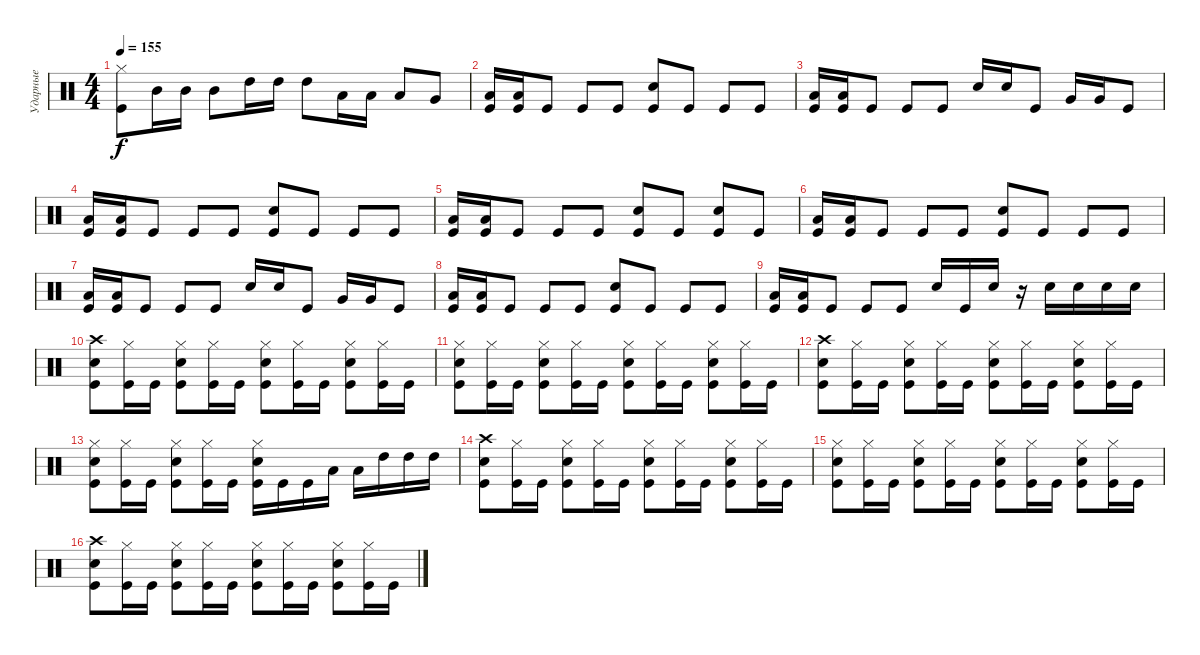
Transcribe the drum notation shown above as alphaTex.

\track ("Ударные" "Ударные") {instrument percussion}
\staff {score}
\articulation defaults
\ts (4 4)
\tempo 155
\clef neutral
\ks c
("Hi-Hat (closed)" "Kick (hit)").8{dy f} "Mid Tom (hit)".16 "Mid Tom (hit)".16 "Mid Tom (hit)".8 "High Tom (hit)".16 "High Tom (hit)".16 "High Tom (hit)".8 "Low Tom (hit)".16 "Low Tom (hit)".16 "Low Tom (hit)".8 "Very Low Tom (hit)".8 |
("Low Tom (hit)" "Kick (hit)").16 ("Low Tom (hit)" "Kick (hit)").16 "Kick (hit)".8 "Kick (hit)".8 "Kick (hit)".8 ("Electric Snare (hit)" "Kick (hit)").8 "Kick (hit)".8 "Kick (hit)".8 "Kick (hit)".8 |
("Low Tom (hit)" "Kick (hit)").16 ("Low Tom (hit)" "Kick (hit)").16 "Kick (hit)".8 "Kick (hit)".8 "Kick (hit)".8 "Electric Snare (hit)".16 "Electric Snare (hit)".16 "Kick (hit)".8 "Very Low Tom (hit)".16 "Very Low Tom (hit)".16 "Kick (hit)".8 |
("Low Tom (hit)" "Kick (hit)").16 ("Low Tom (hit)" "Kick (hit)").16 "Kick (hit)".8 "Kick (hit)".8 "Kick (hit)".8 ("Electric Snare (hit)" "Kick (hit)").8 "Kick (hit)".8 "Kick (hit)".8 "Kick (hit)".8 |
("Low Tom (hit)" "Kick (hit)").16 ("Low Tom (hit)" "Kick (hit)").16 "Kick (hit)".8 "Kick (hit)".8 "Kick (hit)".8 ("Electric Snare (hit)" "Kick (hit)").8 "Kick (hit)".8 ("Electric Snare (hit)" "Kick (hit)").8 "Kick (hit)".8 |
("Low Tom (hit)" "Kick (hit)").16 ("Low Tom (hit)" "Kick (hit)").16 "Kick (hit)".8 "Kick (hit)".8 "Kick (hit)".8 ("Electric Snare (hit)" "Kick (hit)").8 "Kick (hit)".8 "Kick (hit)".8 "Kick (hit)".8 |
("Low Tom (hit)" "Kick (hit)").16 ("Low Tom (hit)" "Kick (hit)").16 "Kick (hit)".8 "Kick (hit)".8 "Kick (hit)".8 "Electric Snare (hit)".16 "Electric Snare (hit)".16 "Kick (hit)".8 "Very Low Tom (hit)".16 "Very Low Tom (hit)".16 "Kick (hit)".8 |
("Low Tom (hit)" "Kick (hit)").16 ("Low Tom (hit)" "Kick (hit)").16 "Kick (hit)".8 "Kick (hit)".8 "Kick (hit)".8 ("Electric Snare (hit)" "Kick (hit)").8 "Kick (hit)".8 "Kick (hit)".8 "Kick (hit)".8 |
("Low Tom (hit)" "Kick (hit)").16 ("Low Tom (hit)" "Kick (hit)").16 "Kick (hit)".8 "Kick (hit)".8 "Kick (hit)".8 "Electric Snare (hit)".16 "Kick (hit)".16 "Electric Snare (hit)".16 r.16 "Electric Snare (hit)".16 "Electric Snare (hit)".16 "Electric Snare (hit)".16 "Electric Snare (hit)".16 |
("Crash high (hit)" "Electric Snare (hit)" "Kick (hit)").8 ("Hi-Hat (closed)" "Kick (hit)").16 "Kick (hit)".16 ("Hi-Hat (closed)" "Electric Snare (hit)" "Kick (hit)").8 ("Hi-Hat (closed)" "Kick (hit)").16 "Kick (hit)".16 ("Hi-Hat (closed)" "Electric Snare (hit)" "Kick (hit)").8 ("Hi-Hat (closed)" "Kick (hit)").16 "Kick (hit)".16 ("Hi-Hat (closed)" "Electric Snare (hit)" "Kick (hit)").8 ("Hi-Hat (closed)" "Kick (hit)").16 "Kick (hit)".16 |
("Hi-Hat (closed)" "Electric Snare (hit)" "Kick (hit)").8 ("Hi-Hat (closed)" "Kick (hit)").16 "Kick (hit)".16 ("Hi-Hat (closed)" "Electric Snare (hit)" "Kick (hit)").8 ("Hi-Hat (closed)" "Kick (hit)").16 "Kick (hit)".16 ("Hi-Hat (closed)" "Electric Snare (hit)" "Kick (hit)").8 ("Hi-Hat (closed)" "Kick (hit)").16 "Kick (hit)".16 ("Hi-Hat (closed)" "Electric Snare (hit)" "Kick (hit)").8 ("Hi-Hat (closed)" "Kick (hit)").16 "Kick (hit)".16 |
("Crash high (hit)" "Electric Snare (hit)" "Kick (hit)").8 ("Hi-Hat (closed)" "Kick (hit)").16 "Kick (hit)".16 ("Hi-Hat (closed)" "Electric Snare (hit)" "Kick (hit)").8 ("Hi-Hat (closed)" "Kick (hit)").16 "Kick (hit)".16 ("Hi-Hat (closed)" "Electric Snare (hit)" "Kick (hit)").8 ("Hi-Hat (closed)" "Kick (hit)").16 "Kick (hit)".16 ("Hi-Hat (closed)" "Electric Snare (hit)" "Kick (hit)").8 ("Hi-Hat (closed)" "Kick (hit)").16 "Kick (hit)".16 |
("Hi-Hat (closed)" "Electric Snare (hit)" "Kick (hit)").8 ("Hi-Hat (closed)" "Kick (hit)").16 "Kick (hit)".16 ("Hi-Hat (closed)" "Electric Snare (hit)" "Kick (hit)").8 ("Hi-Hat (closed)" "Kick (hit)").16 "Kick (hit)".16 ("Hi-Hat (closed)" "Electric Snare (hit)" "Kick (hit)").16 "Kick (hit)".16 "Kick (hit)".16 "Low Tom (hit)".16 "Low Tom (hit)".16 "High Tom (hit)".16 "High Tom (hit)".16 "High Tom (hit)".16 |
("Crash high (hit)" "Electric Snare (hit)" "Kick (hit)").8 ("Hi-Hat (closed)" "Kick (hit)").16 "Kick (hit)".16 ("Hi-Hat (closed)" "Electric Snare (hit)" "Kick (hit)").8 ("Hi-Hat (closed)" "Kick (hit)").16 "Kick (hit)".16 ("Hi-Hat (closed)" "Electric Snare (hit)" "Kick (hit)").8 ("Hi-Hat (closed)" "Kick (hit)").16 "Kick (hit)".16 ("Hi-Hat (closed)" "Electric Snare (hit)" "Kick (hit)").8 ("Hi-Hat (closed)" "Kick (hit)").16 "Kick (hit)".16 |
("Hi-Hat (closed)" "Electric Snare (hit)" "Kick (hit)").8 ("Hi-Hat (closed)" "Kick (hit)").16 "Kick (hit)".16 ("Hi-Hat (closed)" "Electric Snare (hit)" "Kick (hit)").8 ("Hi-Hat (closed)" "Kick (hit)").16 "Kick (hit)".16 ("Hi-Hat (closed)" "Electric Snare (hit)" "Kick (hit)").8 ("Hi-Hat (closed)" "Kick (hit)").16 "Kick (hit)".16 ("Hi-Hat (closed)" "Electric Snare (hit)" "Kick (hit)").8 ("Hi-Hat (closed)" "Kick (hit)").16 "Kick (hit)".16 |
("Crash high (hit)" "Electric Snare (hit)" "Kick (hit)").8 ("Hi-Hat (closed)" "Kick (hit)").16 "Kick (hit)".16 ("Hi-Hat (closed)" "Electric Snare (hit)" "Kick (hit)").8 ("Hi-Hat (closed)" "Kick (hit)").16 "Kick (hit)".16 ("Hi-Hat (closed)" "Electric Snare (hit)" "Kick (hit)").8 ("Hi-Hat (closed)" "Kick (hit)").16 "Kick (hit)".16 ("Hi-Hat (closed)" "Electric Snare (hit)" "Kick (hit)").8 ("Hi-Hat (closed)" "Kick (hit)").16 "Kick (hit)".16
